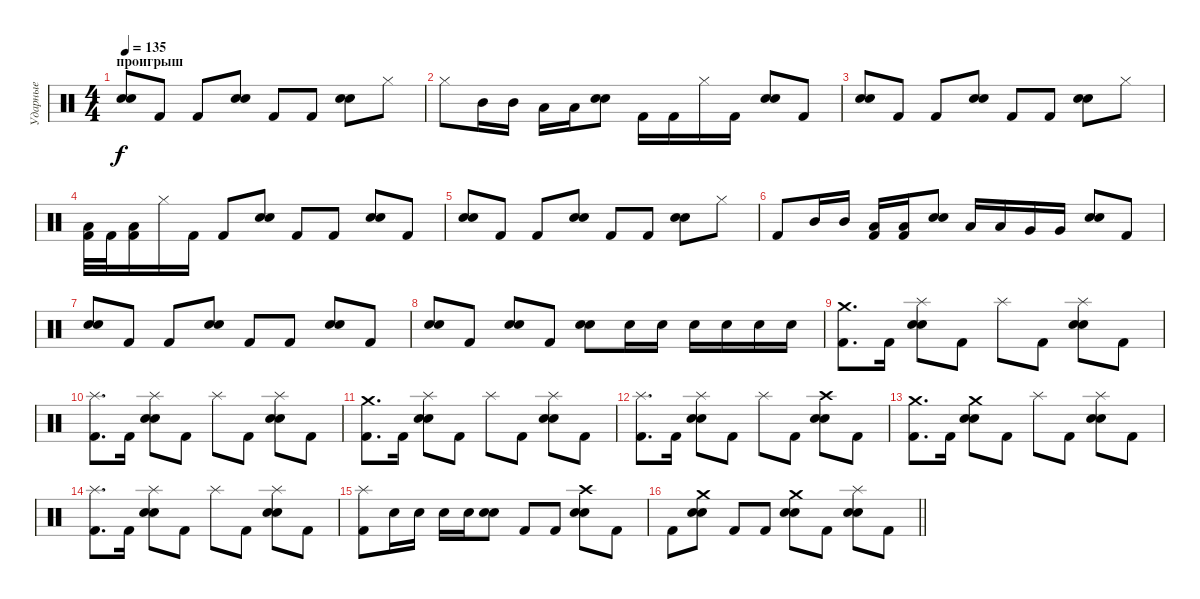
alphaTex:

\track ("Ударные" "Ударные") {instrument percussion}
\staff {score}
\articulation defaults
\ts (4 4)
\section ("" "проигрыш")
\tempo 135
\clef neutral
\ks c
("Electric Snare (hit)" "Snare (hit) 2").8{dy f} "Kick (hit) 2".8 "Kick (hit) 2".8 ("Electric Snare (hit)" "Snare (hit) 2").8 "Kick (hit) 2".8 "Kick (hit) 2".8 ("Electric Snare (hit)" "Snare (hit) 2").8 "Hi-Hat (closed)".8 |
"Hi-Hat (closed)".8 "Mid Tom (hit)".16 "Mid Tom (hit)".16 "Low Tom (hit)".16 "Low Tom (hit)".16 ("Electric Snare (hit)" "Snare (hit) 2").8 "Kick (hit) 2".16 "Kick (hit) 2".16 "Hi-Hat (closed)".16 "Kick (hit) 2".16 ("Electric Snare (hit)" "Snare (hit) 2").8 "Kick (hit) 2".8 |
("Electric Snare (hit)" "Snare (hit) 2").8 "Kick (hit) 2".8 "Kick (hit) 2".8 ("Electric Snare (hit)" "Snare (hit) 2").8 "Kick (hit) 2".8 "Kick (hit) 2".8 ("Electric Snare (hit)" "Snare (hit) 2").8 "Hi-Hat (closed)".8 |
("Low Tom (hit)" "Kick (hit) 2").32 "Kick (hit) 2".32 ("Low Tom (hit)" "Kick (hit) 2").16 "Hi-Hat (closed)".16 "Kick (hit) 2".16 "Kick (hit) 2".8 ("Electric Snare (hit)" "Snare (hit) 2").8 "Kick (hit) 2".8 "Kick (hit) 2".8 ("Electric Snare (hit)" "Snare (hit) 2").8 "Kick (hit) 2".8 |
("Electric Snare (hit)" "Snare (hit) 2").8 "Kick (hit) 2".8 "Kick (hit) 2".8 ("Electric Snare (hit)" "Snare (hit) 2").8 "Kick (hit) 2".8 "Kick (hit) 2".8 ("Electric Snare (hit)" "Snare (hit) 2").8 "Hi-Hat (closed)".8 |
"Kick (hit) 2".8 "Mid Tom (hit)".16 "Mid Tom (hit)".16 ("Low Tom (hit)" "Kick (hit) 2").16 ("Low Tom (hit)" "Kick (hit) 2").16 ("Electric Snare (hit)" "Snare (hit) 2").8 "Low Tom (hit)".16 "Low Tom (hit)".16 "Very Low Tom (hit)".16 "Very Low Tom (hit)".16 ("Electric Snare (hit)" "Snare (hit) 2").8 "Kick (hit) 2".8 |
("Electric Snare (hit)" "Snare (hit) 2").8 "Kick (hit) 2".8 "Kick (hit) 2".8 ("Electric Snare (hit)" "Snare (hit) 2").8 "Kick (hit) 2".8 "Kick (hit) 2".8 ("Electric Snare (hit)" "Snare (hit) 2").8 "Kick (hit) 2".8 |
("Electric Snare (hit)" "Snare (hit) 2").8 "Kick (hit) 2".8 ("Electric Snare (hit)" "Snare (hit) 2").8 "Kick (hit) 2".8 ("Electric Snare (hit)" "Snare (hit) 2").8 "Electric Snare (hit)".16 "Electric Snare (hit)".16 "Electric Snare (hit)".16 "Electric Snare (hit)".16 "Electric Snare (hit)".16 "Electric Snare (hit)".16 |
("Crash medium (hit)" "Kick (hit) 2").8{d} "Kick (hit) 2".16 ("Splash (hit)" "Electric Snare (hit)" "Snare (hit) 2").8 "Kick (hit) 2".8 "Splash (hit)".8 "Kick (hit) 2".8 ("Splash (hit)" "Electric Snare (hit)" "Snare (hit) 2").8 "Kick (hit) 2".8 |
("Splash (hit)" "Kick (hit) 2").8{d} "Kick (hit) 2".16 ("Splash (hit)" "Electric Snare (hit)" "Snare (hit) 2").8 "Kick (hit) 2".8 "Splash (hit)".8 "Kick (hit) 2".8 ("Splash (hit)" "Electric Snare (hit)" "Snare (hit) 2").8 "Kick (hit) 2".8 |
("Crash medium (hit)" "Kick (hit) 2").8{d} "Kick (hit) 2".16 ("Splash (hit)" "Electric Snare (hit)" "Snare (hit) 2").8 "Kick (hit) 2".8 "Splash (hit)".8 "Kick (hit) 2".8 ("Splash (hit)" "Electric Snare (hit)" "Snare (hit) 2").8 "Kick (hit) 2".8 |
("Splash (hit)" "Kick (hit) 2").8{d} "Kick (hit) 2".16 ("Splash (hit)" "Electric Snare (hit)" "Snare (hit) 2").8 "Kick (hit) 2".8 "Splash (hit)".8 "Kick (hit) 2".8 ("Crash high (hit)" "Electric Snare (hit)" "Snare (hit) 2").8 "Kick (hit) 2".8 |
("Crash medium (hit)" "Kick (hit) 2").8{d} "Kick (hit) 2".16 ("Crash medium (hit)" "Electric Snare (hit)" "Snare (hit) 2").8 "Kick (hit) 2".8 "Splash (hit)".8 "Kick (hit) 2".8 ("Splash (hit)" "Electric Snare (hit)" "Snare (hit) 2").8 "Kick (hit) 2".8 |
("Splash (hit)" "Kick (hit) 2").8{d} "Kick (hit) 2".16 ("Splash (hit)" "Electric Snare (hit)" "Snare (hit) 2").8 "Kick (hit) 2".8 "Splash (hit)".8 "Kick (hit) 2".8 ("Splash (hit)" "Electric Snare (hit)" "Snare (hit) 2").8 "Kick (hit) 2".8 |
("Splash (hit)" "Kick (hit) 2").8 "Electric Snare (hit)".16 "Electric Snare (hit)".16 "Electric Snare (hit)".16 "Electric Snare (hit)".16 ("Electric Snare (hit)" "Snare (hit) 2").8 "Kick (hit) 2".8 "Kick (hit) 2".8 ("Crash high (hit)" "Electric Snare (hit)" "Snare (hit) 2").8 "Kick (hit) 2".8 |
\barLineRight lightlight "Kick (hit) 2".8
("Crash medium (hit)" "Electric Snare (hit)" "Snare (hit) 2").8 "Kick (hit) 2".8 "Kick (hit) 2".8 ("Crash medium (hit)" "Electric Snare (hit)" "Snare (hit) 2").8 "Kick (hit) 2".8 ("Splash (hit)" "Electric Snare (hit)" "Snare (hit) 2").8 "Kick (hit) 2".8
